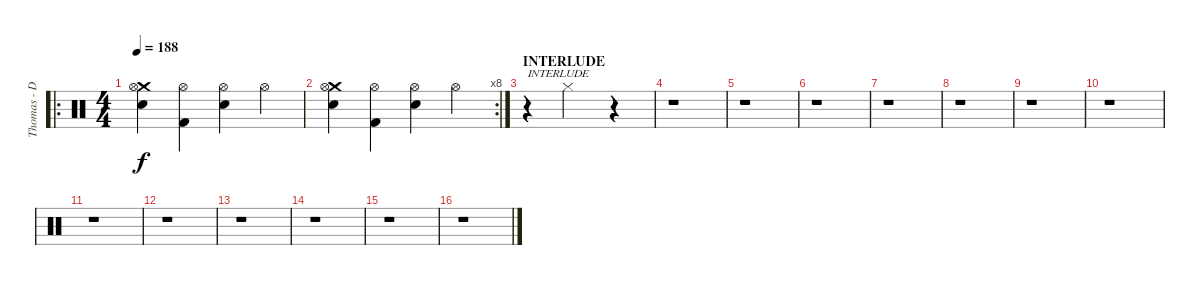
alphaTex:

\track ("Thomas - Drums" "Thomas - D") {instrument percussion}
\staff {score}
\articulation defaults
\ro
\ts (4 4)
\tempo 188
\clef neutral
\ks c
("Crash medium (hit)" "Hi-Hat (open)" "Electric Snare (hit)").4{dy f} ("Hi-Hat (open)" "Kick (hit) 2").4 ("Hi-Hat (open)" "Electric Snare (hit)").4 "Hi-Hat (open)".4 |
\rc 8
("Crash medium (hit)" "Hi-Hat (open)" "Electric Snare (hit)").4 ("Hi-Hat (open)" "Kick (hit) 2").4 ("Hi-Hat (open)" "Electric Snare (hit)").4 "Hi-Hat (open)".4 |
\section ("" "INTERLUDE")
r.4{txt "INTERLUDE"} "Hi-Hat (closed)".2 r.4 |
r.1 |
r.1 |
r.1 |
r.1 |
r.1 |
r.1 |
r.1 |
r.1 |
r.1 |
r.1 |
r.1 |
r.1 |
r.1
